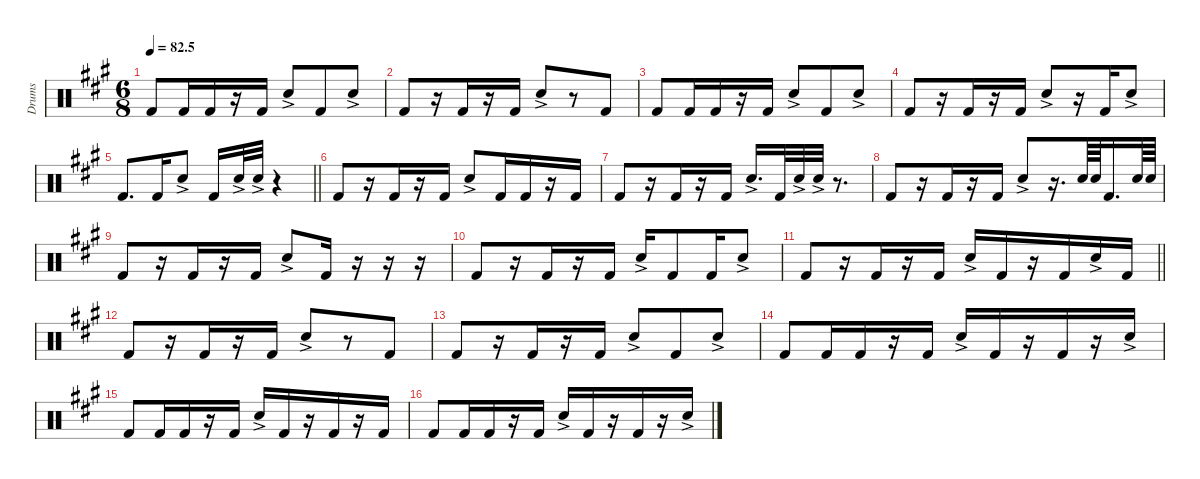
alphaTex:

\defaultSystemsLayout 4
\hideDynamics
\bracketExtendMode nobrackets
\otherSystemsTrackNameOrientation horizontal
\track ("F&S" "Drums") {instrument percussion}
\staff {score}
\articulation defaults
\ts (6 8)
\tempo
82.5
\accidentals auto
\clef neutral
\ottava regular
\simile none
\scale
0.333333
\ks a "Kick (hit) 2"{acc forcenatural}.8{dy f} "Kick (hit) 2"{acc forcenatural}.16 "Kick (hit) 2"{acc forcenatural}.16
r.16 "Kick (hit) 2"{acc forcenatural}.16 "Snare (hit) 2"{ac acc forcenatural}.8 "Kick (hit) 2"{acc forcenatural}.8 "Snare (hit) 2"{ac acc forcenatural}.8 |
\scale
0.333333 "Kick (hit) 2"{acc forcenatural}.8 r.16 "Kick (hit) 2"{acc forcenatural}.16 r.16 "Kick (hit) 2"{acc forcenatural}.16 "Snare (hit) 2"{ac acc forcenatural}.8 r.8 "Kick (hit) 2"{acc forcenatural}.8 |
\scale
0.333333 "Kick (hit) 2"{acc forcenatural}.8 "Kick (hit) 2"{acc forcenatural}.16 "Kick (hit) 2"{acc forcenatural}.16 r.16 "Kick (hit) 2"{acc forcenatural}.16 "Snare (hit) 2"{ac acc forcenatural}.8 "Kick (hit) 2"{acc forcenatural}.8 "Snare (hit) 2"{ac acc forcenatural}.8 |
\scale
0.333333 "Kick (hit) 2"{acc forcenatural}.8 r.16 "Kick (hit) 2"{acc forcenatural}.16 r.16 "Kick (hit) 2"{acc forcenatural}.16 "Snare (hit) 2"{ac acc forcenatural}.8 r.16 "Kick (hit) 2"{acc forcenatural}.16 "Snare (hit) 2"{ac acc forcenatural}.8 |
\scale
0.333333
\barLineRight lightlight "Kick (hit) 2"{acc forcenatural}.8{d} "Kick (hit) 2"{acc forcenatural}.16 "Snare (hit) 2"{ac acc forcenatural}.8 "Kick (hit) 2"{acc forcenatural}.16 "Snare (hit) 2"{ac acc forcenatural}.32 "Snare (hit) 2"{ac acc forcenatural}.32
r.4 |
\scale
0.333333 "Kick (hit) 2"{acc forcenatural}.8 r.16 "Kick (hit) 2"{acc forcenatural}.16 r.16 "Kick (hit) 2"{acc forcenatural}.16 "Snare (hit) 2"{ac acc forcenatural}.8 "Kick (hit) 2"{acc forcenatural}.16 "Kick (hit) 2"{acc forcenatural}.16 r.16 "Kick (hit) 2"{acc forcenatural}.16 |
\scale
0.333333 "Kick (hit) 2"{acc forcenatural}.8 r.16 "Kick (hit) 2"{acc forcenatural}.16 r.16 "Kick (hit) 2"{acc forcenatural}.16 "Snare (hit) 2"{ac acc forcenatural}.16{d} "Kick (hit) 2"{acc forcenatural}.32 "Snare (hit) 2"{ac acc forcenatural}.32 "Snare (hit) 2"{ac acc forcenatural}.32 r.8{d} |
\scale
0.333333 "Kick (hit) 2"{acc forcenatural}.8 r.16 "Kick (hit) 2"{acc forcenatural}.16 r.16 "Kick (hit) 2"{acc forcenatural}.16 "Snare (hit) 2"{ac acc forcenatural}.8 r.16{d} "Snare (hit) 2"{acc forcenatural}.64 "Snare (hit) 2"{acc forcenatural}.64 "Kick (hit) 2"{acc forcenatural}.16{d} "Snare (hit) 2"{acc forcenatural}.64 "Snare (hit) 2"{acc forcenatural}.64 |
\scale
0.333333 "Kick (hit) 2"{acc forcenatural}.8 r.16 "Kick (hit) 2"{acc forcenatural}.16 r.16 "Kick (hit) 2"{acc forcenatural}.16 "Snare (hit) 2"{ac acc forcenatural}.8 "Kick (hit) 2"{acc forcenatural}.16 r.16 r.16 r.16 |
\scale
0.333333 "Kick (hit) 2"{acc forcenatural}.8 r.16 "Kick (hit) 2"{acc forcenatural}.16 r.16 "Kick (hit) 2"{acc forcenatural}.16 "Snare (hit) 2"{ac acc forcenatural}.16 "Kick (hit) 2"{acc forcenatural}.8 "Kick (hit) 2"{acc forcenatural}.16 "Snare (hit) 2"{ac acc forcenatural}.8 |
\scale
0.333333
\barLineRight lightlight "Kick (hit) 2"{acc forcenatural}.8
r.16 "Kick (hit) 2"{acc forcenatural}.16 r.16 "Kick (hit) 2"{acc forcenatural}.16 "Snare (hit) 2"{ac acc forcenatural}.16 "Kick (hit) 2"{acc forcenatural}.16 r.16 "Kick (hit) 2"{acc forcenatural}.16 "Snare (hit) 2"{ac acc forcenatural}.16 "Kick (hit) 2"{acc forcenatural}.16 |
\scale
0.333333 "Kick (hit) 2"{acc forcenatural}.8 r.16 "Kick (hit) 2"{acc forcenatural}.16 r.16 "Kick (hit) 2"{acc forcenatural}.16 "Snare (hit) 2"{ac acc forcenatural}.8 r.8 "Kick (hit) 2"{acc forcenatural}.8 |
\scale
0.333333 "Kick (hit) 2"{acc forcenatural}.8 r.16 "Kick (hit) 2"{acc forcenatural}.16 r.16 "Kick (hit) 2"{acc forcenatural}.16 "Snare (hit) 2"{ac acc forcenatural}.8 "Kick (hit) 2"{acc forcenatural}.8 "Snare (hit) 2"{ac acc forcenatural}.8 |
\scale
0.333333 "Kick (hit) 2"{acc forcenatural}.8 "Kick (hit) 2"{acc forcenatural}.16 "Kick (hit) 2"{acc forcenatural}.16 r.16 "Kick (hit) 2"{acc forcenatural}.16 "Snare (hit) 2"{ac acc forcenatural}.16 "Kick (hit) 2"{acc forcenatural}.16 r.16 "Kick (hit) 2"{acc forcenatural}.16 r.16 "Snare (hit) 2"{ac acc forcenatural}.16 |
\scale
0.333333 "Kick (hit) 2"{acc forcenatural}.8 "Kick (hit) 2"{acc forcenatural}.16 "Kick (hit) 2"{acc forcenatural}.16 r.16 "Kick (hit) 2"{acc forcenatural}.16 "Snare (hit) 2"{ac acc forcenatural}.16 "Kick (hit) 2"{acc forcenatural}.16 r.16 "Kick (hit) 2"{acc forcenatural}.16 r.16 "Kick (hit) 2"{acc forcenatural}.16 |
\scale
0.333333 "Kick (hit) 2"{acc forcenatural}.8 "Kick (hit) 2"{acc forcenatural}.16 "Kick (hit) 2"{acc forcenatural}.16 r.16 "Kick (hit) 2"{acc forcenatural}.16 "Snare (hit) 2"{ac acc forcenatural}.16 "Kick (hit) 2"{acc forcenatural}.16 r.16 "Kick (hit) 2"{acc forcenatural}.16 r.16 "Snare (hit) 2"{ac acc forcenatural}.16
